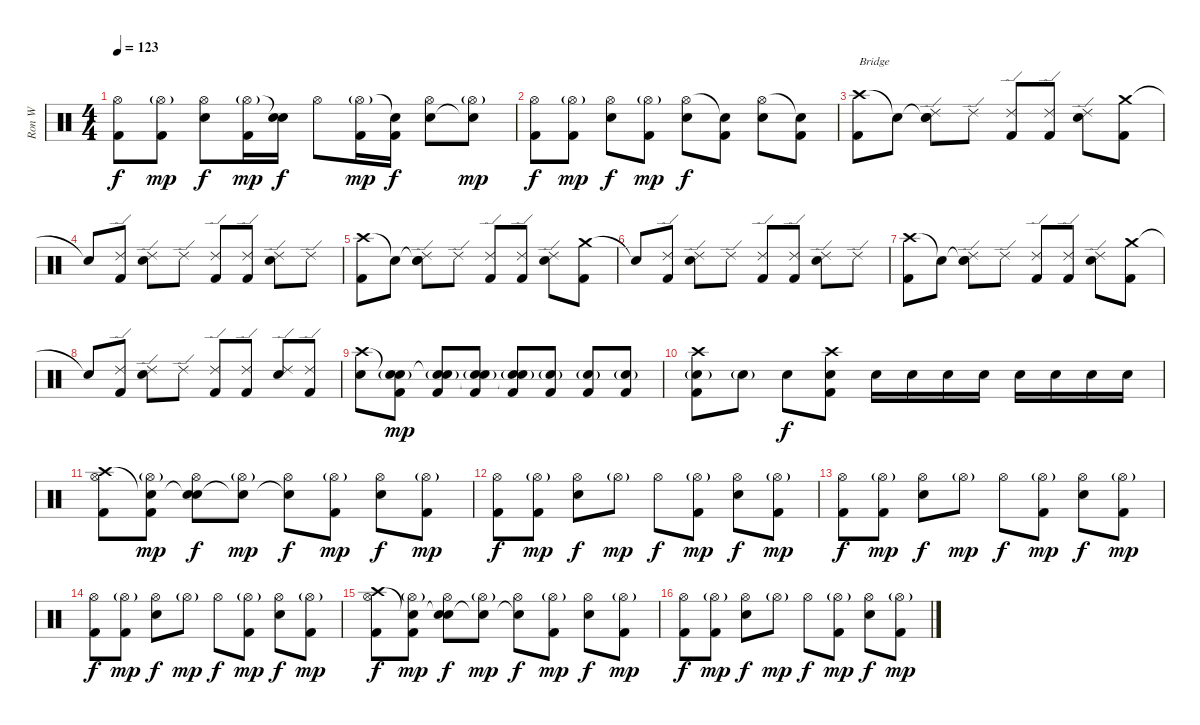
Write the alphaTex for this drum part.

\track ("Ron W" "Ron W") {instrument percussion}
\staff {score}
\articulation defaults
\ts (4 4)
\tempo 123
\clef neutral
\ks c
("Hi-Hat (open)" "Kick (hit) 2").8{dy f volume 12} ("Hi-Hat (open)"{g} "Kick (hit) 2").8{dy mp} ("Hi-Hat (open)" "Electric Snare (hit)").8{dy f} ("Hi-Hat (open)"{g} "Kick (hit) 2").16{dy mp} ("Snare (hit)"{t} "Electric Snare (hit)").16{dy f} "Hi-Hat (open)".8 ("Hi-Hat (open)"{g} "Kick (hit) 2").16{dy mp} ("Snare (hit)"{t} "Kick (hit) 2").16{dy f} ("Hi-Hat (open)" "Electric Snare (hit)").8 ("Hi-Hat (open)"{g} "Snare (hit)"{t}).8{dy mp} |
("Hi-Hat (open)" "Kick (hit) 2").8{dy f volume 12} ("Hi-Hat (open)"{g} "Kick (hit) 2").8{dy mp} ("Hi-Hat (open)" "Electric Snare (hit)").8{dy f} ("Hi-Hat (open)"{g} "Kick (hit) 2").8{dy mp} ("Hi-Hat (open)" "Electric Snare (hit)").8{dy f} ("Snare (hit)"{t} "Kick (hit) 2").8 ("Hi-Hat (open)" "Electric Snare (hit)").8 ("Snare (hit)"{t} "Kick (hit) 2").8 |
("Crash high (hit)" "Kick (hit) 2").8{txt "Bridge" volume 10} "Snare (hit)"{t}.8 ("Snare (hit)"{t} "Ride (edge) 2" "Electric Snare (hit)").8 "Ride (edge) 2".8 ("Ride (edge) 2" "Kick (hit) 2").8 ("Ride (edge) 2" "Kick (hit) 2").8 ("Ride (edge) 2" "Electric Snare (hit)").8 ("Crash medium (hit)" "Kick (hit) 2").8 |
"Snare (hit)"{t}.8 ("Ride (edge) 2" "Kick (hit) 2").8 ("Ride (edge) 2" "Electric Snare (hit)").8 "Ride (edge) 2".8 ("Ride (edge) 2" "Kick (hit) 2").8 ("Ride (edge) 2" "Kick (hit) 2").8 ("Ride (edge) 2" "Electric Snare (hit)").8 "Ride (edge) 2".8 |
("Crash high (hit)" "Kick (hit) 2").8 "Snare (hit)"{t}.8 ("Snare (hit)"{t} "Ride (edge) 2" "Electric Snare (hit)").8 "Ride (edge) 2".8 ("Ride (edge) 2" "Kick (hit) 2").8 ("Ride (edge) 2" "Kick (hit) 2").8 ("Ride (edge) 2" "Electric Snare (hit)").8 ("Crash medium (hit)" "Kick (hit) 2").8 |
"Snare (hit)"{t}.8 ("Ride (edge) 2" "Kick (hit) 2").8 ("Ride (edge) 2" "Electric Snare (hit)").8 "Ride (edge) 2".8 ("Ride (edge) 2" "Kick (hit) 2").8 ("Ride (edge) 2" "Kick (hit) 2").8 ("Ride (edge) 2" "Electric Snare (hit)").8 "Ride (edge) 2".8 |
("Crash high (hit)" "Kick (hit) 2").8 "Snare (hit)"{t}.8 ("Snare (hit)"{t} "Ride (edge) 2" "Electric Snare (hit)").8 "Ride (edge) 2".8 ("Ride (edge) 2" "Kick (hit) 2").8 ("Ride (edge) 2" "Kick (hit) 2").8 ("Ride (edge) 2" "Electric Snare (hit)").8 ("Crash medium (hit)" "Kick (hit) 2").8 |
"Snare (hit)"{t}.8 ("Ride (edge) 2" "Kick (hit) 2").8 ("Ride (edge) 2" "Electric Snare (hit)").8 "Ride (edge) 2".8 ("Ride (edge) 2" "Kick (hit) 2").8 ("Ride (edge) 2" "Kick (hit) 2").8 ("Ride (edge) 2" "Electric Snare (hit)").8 ("Ride (edge) 2" "Kick (hit) 2").8 |
("Crash high (hit)" "Electric Snare (hit)").8 ("Snare (hit)"{t} "Electric Snare (hit)"{g} "Kick (hit) 2").8{dy mp} ("Snare (hit)"{t} "Electric Snare (hit)"{g} "Kick (hit) 2").8 ("Snare (hit)"{t} "Electric Snare (hit)"{g} "Kick (hit) 2").8 ("Snare (hit)"{t} "Electric Snare (hit)"{g} "Kick (hit) 2").8 ("Electric Snare (hit)"{g} "Kick (hit) 2").8 ("Electric Snare (hit)"{g} "Kick (hit) 2").8 ("Electric Snare (hit)"{g} "Kick (hit) 2").8 |
("Crash high (hit)" "Electric Snare (hit)"{g} "Kick (hit) 2").8 "Electric Snare (hit)"{g}.8 "Electric Snare (hit)".8{dy f} ("Crash high (hit)" "Electric Snare (hit)" "Kick (hit) 2").8 "Electric Snare (hit)".16 "Electric Snare (hit)".16 "Electric Snare (hit)".16 "Electric Snare (hit)".16 "Electric Snare (hit)".16 "Electric Snare (hit)".16 "Electric Snare (hit)".16 "Electric Snare (hit)".16 |
("Crash high (hit)" "Hi-Hat (open)" "Kick (hit) 2").8 ("Snare (hit)"{t} "Hi-Hat (open)"{g} "Kick (hit) 2").8{dy mp} ("Snare (hit)"{t} "Hi-Hat (open)" "Electric Snare (hit)").8{dy f} ("Snare (hit)"{t} "Hi-Hat (open)"{g}).8{dy mp} ("Snare (hit)"{t} "Hi-Hat (open)").8{dy f} ("Hi-Hat (open)"{g} "Kick (hit) 2").8{dy mp} ("Hi-Hat (open)" "Electric Snare (hit)").8{dy f} ("Hi-Hat (open)"{g} "Kick (hit) 2").8{dy mp} |
("Hi-Hat (open)" "Kick (hit) 2").8{dy f} ("Hi-Hat (open)"{g} "Kick (hit) 2").8{dy mp} ("Hi-Hat (open)" "Electric Snare (hit)").8{dy f} "Hi-Hat (open)"{g}.8{dy mp} "Hi-Hat (open)".8{dy f} ("Hi-Hat (open)"{g} "Kick (hit) 2").8{dy mp} ("Hi-Hat (open)" "Electric Snare (hit)").8{dy f} ("Hi-Hat (open)"{g} "Kick (hit) 2").8{dy mp} |
("Hi-Hat (open)" "Kick (hit) 2").8{dy f} ("Hi-Hat (open)"{g} "Kick (hit) 2").8{dy mp} ("Hi-Hat (open)" "Electric Snare (hit)").8{dy f} "Hi-Hat (open)"{g}.8{dy mp} "Hi-Hat (open)".8{dy f} ("Hi-Hat (open)"{g} "Kick (hit) 2").8{dy mp} ("Hi-Hat (open)" "Electric Snare (hit)").8{dy f} ("Hi-Hat (open)"{g} "Kick (hit) 2").8{dy mp} |
("Hi-Hat (open)" "Kick (hit) 2").8{dy f} ("Hi-Hat (open)"{g} "Kick (hit) 2").8{dy mp} ("Hi-Hat (open)" "Electric Snare (hit)").8{dy f} "Hi-Hat (open)"{g}.8{dy mp} "Hi-Hat (open)".8{dy f} ("Hi-Hat (open)"{g} "Kick (hit) 2").8{dy mp} ("Hi-Hat (open)" "Electric Snare (hit)").8{dy f} ("Hi-Hat (open)"{g} "Kick (hit) 2").8{dy mp} |
("Crash high (hit)" "Hi-Hat (open)" "Kick (hit) 2").8{dy f} ("Snare (hit)"{t} "Hi-Hat (open)"{g} "Kick (hit) 2").8{dy mp} ("Snare (hit)"{t} "Hi-Hat (open)" "Electric Snare (hit)").8{dy f} ("Snare (hit)"{t} "Hi-Hat (open)"{g}).8{dy mp} ("Snare (hit)"{t} "Hi-Hat (open)").8{dy f} ("Hi-Hat (open)"{g} "Kick (hit) 2").8{dy mp} ("Hi-Hat (open)" "Electric Snare (hit)").8{dy f} ("Hi-Hat (open)"{g} "Kick (hit) 2").8{dy mp} |
("Hi-Hat (open)" "Kick (hit) 2").8{dy f} ("Hi-Hat (open)"{g} "Kick (hit) 2").8{dy mp} ("Hi-Hat (open)" "Electric Snare (hit)").8{dy f} "Hi-Hat (open)"{g}.8{dy mp} "Hi-Hat (open)".8{dy f} ("Hi-Hat (open)"{g} "Kick (hit) 2").8{dy mp} ("Hi-Hat (open)" "Electric Snare (hit)").8{dy f} ("Hi-Hat (open)"{g} "Kick (hit) 2").8{dy mp}
